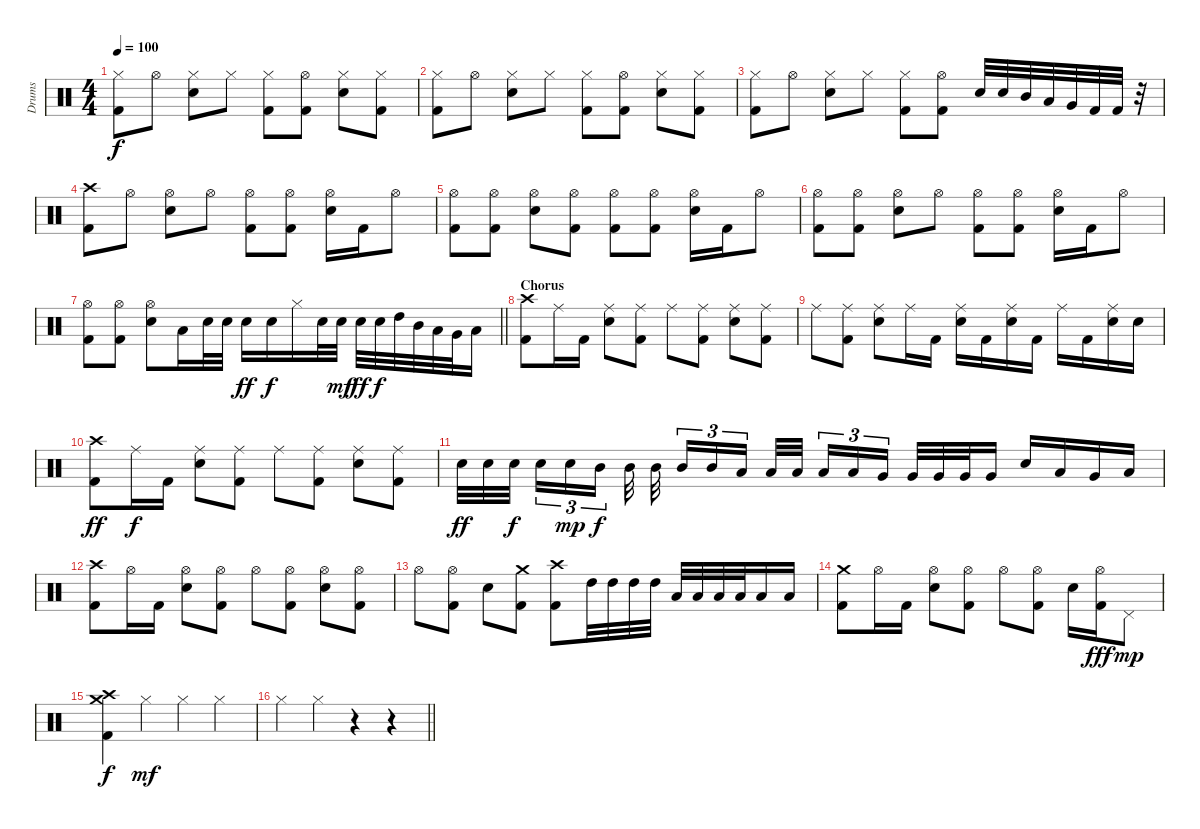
\track ("Drums" "Drums") {instrument percussion}
\staff {score}
\articulation defaults
\ts (4 4)
\tempo 100
\clef neutral
\ks c
("Hi-Hat (closed)" "Kick (hit) 2").8{dy f} "Hi-Hat (open)".8 ("Hi-Hat (closed)" "Snare (hit) 2").8 "Hi-Hat (closed)".8 ("Hi-Hat (closed)" "Kick (hit) 2").8 ("Hi-Hat (open)" "Kick (hit) 2").8 ("Hi-Hat (closed)" "Snare (hit) 2").8 ("Hi-Hat (closed)" "Kick (hit) 2").8 |
("Hi-Hat (closed)" "Kick (hit) 2").8 "Hi-Hat (open)".8 ("Hi-Hat (closed)" "Snare (hit) 2").8 "Hi-Hat (closed)".8 ("Hi-Hat (closed)" "Kick (hit) 2").8 ("Hi-Hat (open)" "Kick (hit) 2").8 ("Hi-Hat (closed)" "Snare (hit) 2").8 ("Hi-Hat (closed)" "Kick (hit) 2").8 |
("Hi-Hat (closed)" "Kick (hit) 2").8 "Hi-Hat (open)".8 ("Hi-Hat (closed)" "Snare (hit) 2").8 "Hi-Hat (closed)".8 ("Hi-Hat (closed)" "Kick (hit) 2").8 ("Hi-Hat (open)" "Kick (hit) 2").8 "Snare (hit) 2".32 "Snare (hit) 2".32 "Mid Tom (hit)".32 "Low Tom (hit)".32 "Very Low Tom (hit)".32 "Kick (hit) 2".32 "Kick (hit) 2".32 r.32 |
("Crash high (hit)" "Kick (hit) 2").8 "Hi-Hat (open)".8 ("Hi-Hat (open)" "Snare (hit) 2").8 "Hi-Hat (open)".8 ("Hi-Hat (open)" "Kick (hit) 2").8 ("Hi-Hat (open)" "Kick (hit) 2").8 ("Hi-Hat (open)" "Snare (hit) 2").16 "Kick (hit) 2".16 "Hi-Hat (open)".8 |
("Hi-Hat (open)" "Kick (hit) 2").8 ("Hi-Hat (open)" "Kick (hit) 2").8 ("Hi-Hat (open)" "Snare (hit) 2").8 ("Hi-Hat (open)" "Kick (hit) 2").8 ("Hi-Hat (open)" "Kick (hit) 2").8 ("Hi-Hat (open)" "Kick (hit) 2").8 ("Hi-Hat (open)" "Snare (hit) 2").16 "Kick (hit) 2".16 "Hi-Hat (open)".8 |
("Hi-Hat (open)" "Kick (hit) 2").8 ("Hi-Hat (open)" "Kick (hit) 2").8 ("Hi-Hat (open)" "Snare (hit) 2").8 "Hi-Hat (open)".8 ("Hi-Hat (open)" "Kick (hit) 2").8 ("Hi-Hat (open)" "Kick (hit) 2").8 ("Hi-Hat (open)" "Snare (hit) 2").16 "Kick (hit) 2".16 "Hi-Hat (open)".8 |
\barLineRight lightlight
("Hi-Hat (open)" "Kick (hit) 2").8 ("Hi-Hat (open)" "Kick (hit) 2").8 ("Hi-Hat (open)" "Snare (hit) 2").8 "Low Tom (hit)".16 "Snare (hit) 2".32 "Snare (hit) 2".32 "Snare (hit) 2".16{dy ff} "Snare (hit) 2".16{dy f} "Hi-Hat (closed)".16 "Snare (hit) 2".32 "Snare (hit) 2".32{dy mf} "Snare (hit) 2".32{dy ff} "Snare (hit) 2".32{dy f} "High Tom (hit)".32 "Mid Tom (hit)".32 "Low Tom (hit)".32 "Very Low Tom (hit)".32 "Low Floor Tom (hit)".16 |
\section ("" "Chorus")
("Crash high (hit)" "Kick (hit) 2").8 "Ride (middle)".16 "Kick (hit) 2".16 ("Ride (middle)" "Snare (hit) 2").8 ("Ride (middle)" "Kick (hit) 2").8 "Ride (middle)".8 ("Ride (middle)" "Kick (hit) 2").8 ("Ride (middle)" "Snare (hit) 2").8 ("Ride (middle)" "Kick (hit) 2").8 |
"Ride (middle)".8 ("Ride (middle)" "Kick (hit) 2").8 ("Ride (middle)" "Snare (hit) 2").8 "Ride (middle)".16 "Kick (hit) 2".16 ("Ride (middle)" "Snare (hit) 2").16 "Kick (hit) 2".16 ("Ride (middle)" "Snare (hit) 2").16 "Kick (hit) 2".16 "Ride (middle)".16 "Kick (hit) 2".16 ("Ride (middle)" "Snare (hit) 2").16 "Snare (hit) 2".16 |
("Crash high (hit)" "Kick (hit) 2").8{dy ff} "Ride (middle)".16{dy f} "Kick (hit) 2".16 ("Ride (middle)" "Snare (hit) 2").8 ("Ride (middle)" "Kick (hit) 2").8 "Ride (middle)".8 ("Ride (middle)" "Kick (hit) 2").8 ("Ride (middle)" "Snare (hit) 2").8 ("Ride (middle)" "Kick (hit) 2").8 |
"Snare (hit) 2".32{dy ff} "Snare (hit) 2".32 "Snare (hit) 2".32{dy f beam splitsecondary} "Snare (hit) 2".16{tu (3 2)} "Snare (hit) 2".16{tu (3 2) dy mp} "Mid Tom (hit)".16{tu (3 2) dy f beam splitsecondary} "Mid Tom (hit)".32 "Mid Tom (hit)".32{beam splitsecondary} "Mid Tom (hit)".16{tu (3 2)} "Mid Tom (hit)".16{tu (3 2)} "Low Tom (hit)".16{tu (3 2) beam splitsecondary} "Low Tom (hit)".32 "Low Tom (hit)".32{beam splitsecondary} "Low Tom (hit)".16{tu (3 2)} "Low Tom (hit)".16{tu (3 2)} "Very Low Tom (hit)".16{tu (3 2) beam splitsecondary} "Very Low Tom (hit)".32 "Very Low Tom (hit)".32 "Very Low Tom (hit)".32 "Very Low Tom (hit)".16 "Snare (hit) 2".16 "Low Tom (hit)".16 "Very Low Tom (hit)".16 "Low Floor Tom (hit)".16 |
("Crash high (hit)" "Kick (hit) 2").8 "Hi-Hat (open)".16 "Kick (hit) 2".16 ("Hi-Hat (open)" "Snare (hit) 2").8 ("Hi-Hat (open)" "Kick (hit) 2").8 "Hi-Hat (open)".8 ("Hi-Hat (open)" "Kick (hit) 2").8 ("Hi-Hat (open)" "Snare (hit) 2").8 ("Hi-Hat (open)" "Kick (hit) 2").8 |
"Hi-Hat (open)".8 ("Hi-Hat (open)" "Kick (hit) 2").8 "Snare (hit) 2".8 ("Crash medium (hit)" "Kick (hit) 2").8 ("Crash high (hit)" "Kick (hit) 2").8 "High Tom (hit)".32 "High Tom (hit)".32 "High Tom (hit)".32 "High Tom (hit)".32 "Low Tom (hit)".32 "Low Tom (hit)".32 "Low Tom (hit)".32 "Low Tom (hit)".32 "Low Floor Tom (hit)".16 "Low Floor Tom (hit)".16 |
("Crash medium (hit)" "Kick (hit) 2").8 "Hi-Hat (open)".16 "Kick (hit) 2".16 ("Hi-Hat (open)" "Snare (hit) 2").8 ("Hi-Hat (open)" "Kick (hit) 2").8 "Hi-Hat (open)".8 ("Hi-Hat (open)" "Kick (hit) 2").8 "Snare (hit) 2".16 ("Hi-Hat (open)" "Kick (hit) 2").16{dy fff} "Pedal Hi-Hat (hit)".8{dy mp} |
("Crash medium (hit)" "Crash high (hit)" "Kick (hit) 2").4{dy f} "Hi-Hat (closed)".4{dy mf} "Hi-Hat (closed)".4 "Hi-Hat (closed)".4 |
\barLineRight lightlight "Hi-Hat (closed)".4 "Hi-Hat (closed)".4
r.4 r.4
